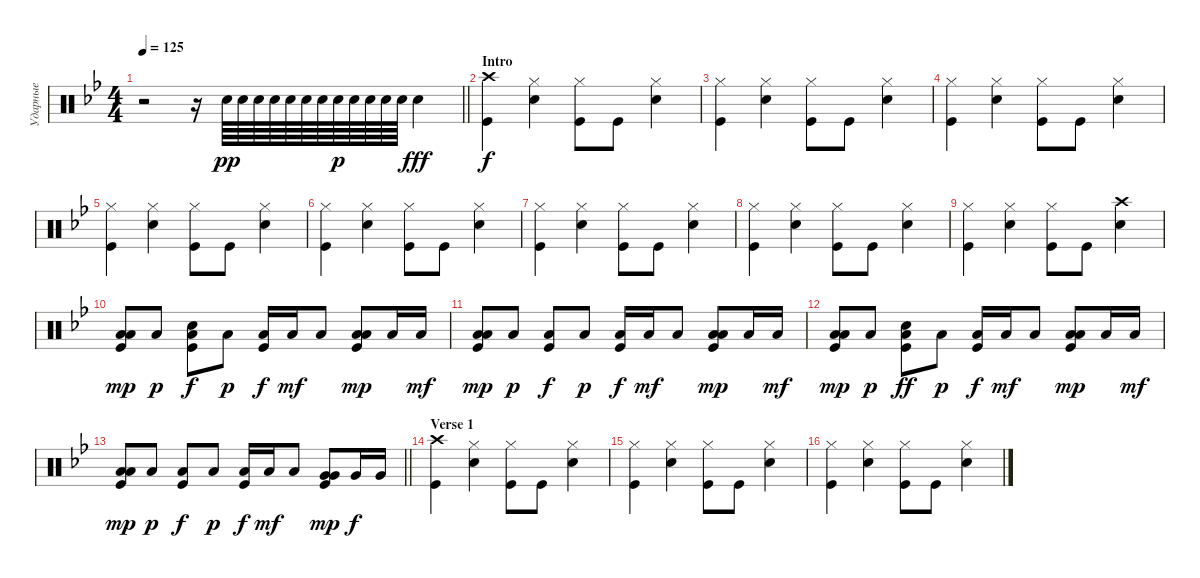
\track ("Ударные" "Ударные") {instrument percussion}
\staff {score}
\articulation defaults
\ts (4 4)
\section ("" "")
\tempo 125
\clef neutral
\barLineRight lightlight
\ks gminor
r.2{dy pp} r.16 "Snare (hit) 2".64{volume 5} "Snare (hit) 2".64{volume 16} "Snare (hit) 2".64 "Snare (hit) 2".64 "Snare (hit) 2".64 "Snare (hit) 2".64 "Snare (hit) 2".64 "Snare (hit) 2".64{dy p} "Snare (hit) 2".64 "Snare (hit) 2".64 "Snare (hit) 2".64 "Snare (hit) 2".64 "Snare (hit) 2".4{dy fff} |
\section ("" "Intro")
("Kick (hit)" "Crash high (hit)").4{dy f} ("Hi-Hat (closed)" "Snare (hit) 2").4 ("Hi-Hat (closed)" "Kick (hit)").8 "Kick (hit)".8 ("Hi-Hat (closed)" "Snare (hit) 2").4 |
("Kick (hit)" "Hi-Hat (closed)").4 ("Hi-Hat (closed)" "Snare (hit) 2").4 ("Hi-Hat (closed)" "Kick (hit)").8 "Kick (hit)".8 ("Hi-Hat (closed)" "Snare (hit) 2").4 |
("Kick (hit)" "Hi-Hat (closed)").4 ("Hi-Hat (closed)" "Snare (hit) 2").4 ("Hi-Hat (closed)" "Kick (hit)").8 "Kick (hit)".8 ("Hi-Hat (closed)" "Snare (hit) 2").4 |
("Kick (hit)" "Hi-Hat (closed)").4 ("Hi-Hat (closed)" "Snare (hit) 2").4 ("Hi-Hat (closed)" "Kick (hit)").8 "Kick (hit)".8 ("Hi-Hat (closed)" "Snare (hit) 2").4 |
("Kick (hit)" "Hi-Hat (closed)").4 ("Hi-Hat (closed)" "Snare (hit) 2").4 ("Hi-Hat (closed)" "Kick (hit)").8 "Kick (hit)".8 ("Hi-Hat (closed)" "Snare (hit) 2").4 |
("Kick (hit)" "Hi-Hat (closed)").4 ("Hi-Hat (closed)" "Snare (hit) 2").4 ("Hi-Hat (closed)" "Kick (hit)").8 "Kick (hit)".8 ("Hi-Hat (closed)" "Snare (hit) 2").4 |
("Kick (hit)" "Hi-Hat (closed)").4 ("Hi-Hat (closed)" "Snare (hit) 2").4 ("Hi-Hat (closed)" "Kick (hit)").8 "Kick (hit)".8 ("Hi-Hat (closed)" "Snare (hit) 2").4 |
("Kick (hit)" "Hi-Hat (closed)").4 ("Hi-Hat (closed)" "Snare (hit) 2").4 ("Hi-Hat (closed)" "Kick (hit)").8 "Kick (hit)".8 ("Crash high (hit)" "Snare (hit) 2").4 |
("Kick (hit)" "Low Floor Tom (hit)" "Low Floor Tom (hit)").8{bd 120 dy mp} "Low Floor Tom (hit)".8{dy p} ("Snare (hit) 2" "Low Floor Tom (hit)" "Kick (hit)").8{bd 120 dy f} "Low Floor Tom (hit)".8{dy p} ("Kick (hit)" "Low Floor Tom (hit)").16{dy f} "Low Floor Tom (hit)".16{dy mf} "Low Floor Tom (hit)".8 ("Kick (hit)" "Low Floor Tom (hit)" "Low Floor Tom (hit)").8{bd 120 dy mp} "Low Floor Tom (hit)".16 "Low Floor Tom (hit)".16{dy mf} |
("Kick (hit)" "Low Floor Tom (hit)" "Low Floor Tom (hit)").8{bd 120 dy mp} "Low Floor Tom (hit)".8{dy p} ("Low Floor Tom (hit)" "Kick (hit)").8{bd 120 dy f} "Low Floor Tom (hit)".8{dy p} ("Kick (hit)" "Low Floor Tom (hit)").16{dy f} "Low Floor Tom (hit)".16{dy mf} "Low Floor Tom (hit)".8 ("Kick (hit)" "Low Floor Tom (hit)" "Low Floor Tom (hit)").8{bd 120 dy mp} "Low Floor Tom (hit)".16 "Low Floor Tom (hit)".16{dy mf} |
("Kick (hit)" "Low Floor Tom (hit)" "Low Floor Tom (hit)").8{bd 120 dy mp} "Low Floor Tom (hit)".8{dy p} ("Snare (hit) 2" "Low Floor Tom (hit)" "Kick (hit)").8{dy ff} "Low Floor Tom (hit)".8{dy p} ("Kick (hit)" "Low Floor Tom (hit)").16{dy f} "Low Floor Tom (hit)".16{dy mf} "Low Floor Tom (hit)".8 ("Kick (hit)" "Low Floor Tom (hit)" "Low Floor Tom (hit)").8{bd 120 dy mp} "Low Floor Tom (hit)".16 "Low Floor Tom (hit)".16{dy mf} |
\barLineRight lightlight
("Kick (hit)" "Low Floor Tom (hit)" "Low Floor Tom (hit)").8{bd 120 dy mp} "Low Floor Tom (hit)".8{dy p} ("Low Floor Tom (hit)" "Kick (hit)").8{bd 120 dy f} "Low Floor Tom (hit)".8{dy p} ("Kick (hit)" "Low Floor Tom (hit)").16{dy f} "Low Floor Tom (hit)".16{dy mf} "Low Floor Tom (hit)".8 ("Kick (hit)" "Very Low Tom (hit)" "Very Low Tom (hit)").8{bd 120 dy mp} "Very Low Tom (hit)".16{dy f} "Very Low Tom (hit)".16 |
\section ("" "Verse 1")
("Kick (hit)" "Crash high (hit)").4 ("Hi-Hat (closed)" "Snare (hit) 2").4 ("Hi-Hat (closed)" "Kick (hit)").8 "Kick (hit)".8 ("Hi-Hat (closed)" "Snare (hit) 2").4 |
("Kick (hit)" "Hi-Hat (closed)").4 ("Hi-Hat (closed)" "Snare (hit) 2").4 ("Hi-Hat (closed)" "Kick (hit)").8 "Kick (hit)".8 ("Hi-Hat (closed)" "Snare (hit) 2").4 |
("Kick (hit)" "Hi-Hat (closed)").4 ("Hi-Hat (closed)" "Snare (hit) 2").4 ("Hi-Hat (closed)" "Kick (hit)").8 "Kick (hit)".8 ("Hi-Hat (closed)" "Snare (hit) 2").4
